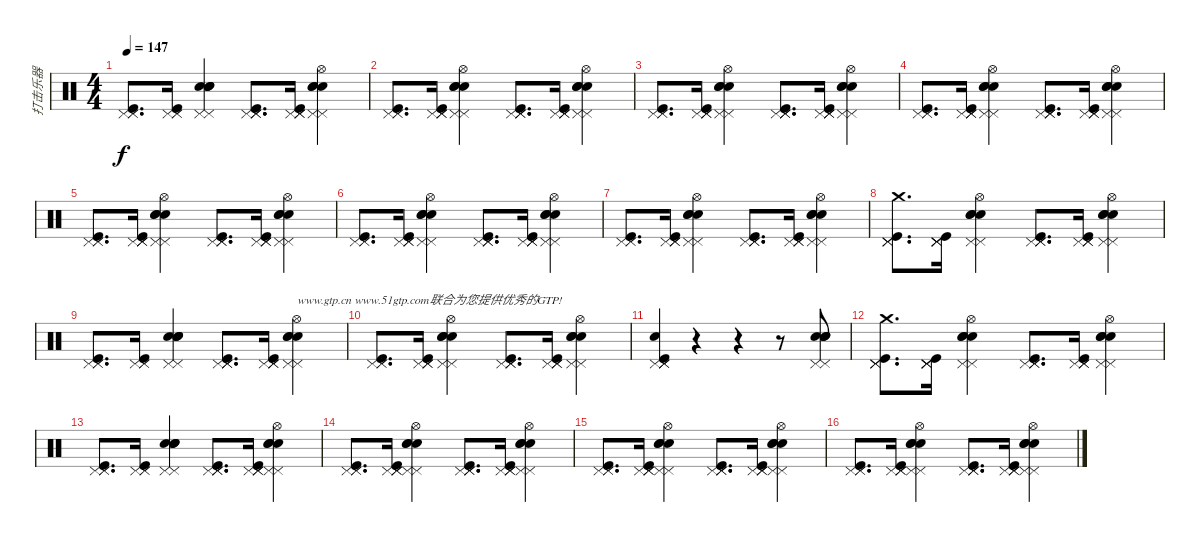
\track ("打击乐器" "打击乐器") {instrument percussion}
\staff {score}
\articulation defaults
\ts (4 4)
\tempo 147
\clef neutral
\ks c
("Pedal Hi-Hat (hit)" "Pedal Hi-Hat (hit)" "Pedal Hi-Hat (hit)" "Kick (hit)").8{d dy f} ("Pedal Hi-Hat (hit)" "Pedal Hi-Hat (hit)" "Pedal Hi-Hat (hit)" "Kick (hit)").16 ("Electric Snare (hit)" "Electric Snare (hit)" "Electric Snare (hit)" "Electric Snare (hit)" "Pedal Hi-Hat (hit)" "Pedal Hi-Hat (hit)").4 ("Pedal Hi-Hat (hit)" "Pedal Hi-Hat (hit)" "Pedal Hi-Hat (hit)" "Pedal Hi-Hat (hit)" "Kick (hit)").8{d} ("Pedal Hi-Hat (hit)" "Pedal Hi-Hat (hit)" "Pedal Hi-Hat (hit)" "Pedal Hi-Hat (hit)" "Kick (hit)").16 ("Electric Snare (hit)" "Electric Snare (hit)" "Electric Snare (hit)" "Hi-Hat (open)" "Pedal Hi-Hat (hit)" "Pedal Hi-Hat (hit)").4 |
("Pedal Hi-Hat (hit)" "Pedal Hi-Hat (hit)" "Pedal Hi-Hat (hit)" "Kick (hit)").8{d} ("Pedal Hi-Hat (hit)" "Pedal Hi-Hat (hit)" "Pedal Hi-Hat (hit)" "Pedal Hi-Hat (hit)" "Kick (hit)").16 ("Electric Snare (hit)" "Electric Snare (hit)" "Electric Snare (hit)" "Hi-Hat (open)" "Pedal Hi-Hat (hit)" "Pedal Hi-Hat (hit)").4 ("Pedal Hi-Hat (hit)" "Pedal Hi-Hat (hit)" "Pedal Hi-Hat (hit)" "Pedal Hi-Hat (hit)" "Kick (hit)").8{d} ("Pedal Hi-Hat (hit)" "Pedal Hi-Hat (hit)" "Pedal Hi-Hat (hit)" "Pedal Hi-Hat (hit)" "Kick (hit)").16 ("Electric Snare (hit)" "Electric Snare (hit)" "Electric Snare (hit)" "Hi-Hat (open)" "Pedal Hi-Hat (hit)" "Pedal Hi-Hat (hit)").4 |
("Pedal Hi-Hat (hit)" "Pedal Hi-Hat (hit)" "Pedal Hi-Hat (hit)" "Kick (hit)").8{d} ("Pedal Hi-Hat (hit)" "Pedal Hi-Hat (hit)" "Pedal Hi-Hat (hit)" "Pedal Hi-Hat (hit)" "Kick (hit)").16 ("Electric Snare (hit)" "Electric Snare (hit)" "Electric Snare (hit)" "Hi-Hat (open)" "Pedal Hi-Hat (hit)" "Pedal Hi-Hat (hit)").4 ("Pedal Hi-Hat (hit)" "Pedal Hi-Hat (hit)" "Pedal Hi-Hat (hit)" "Pedal Hi-Hat (hit)" "Kick (hit)").8{d} ("Pedal Hi-Hat (hit)" "Pedal Hi-Hat (hit)" "Pedal Hi-Hat (hit)" "Pedal Hi-Hat (hit)" "Kick (hit)").16 ("Electric Snare (hit)" "Electric Snare (hit)" "Electric Snare (hit)" "Hi-Hat (open)" "Pedal Hi-Hat (hit)" "Pedal Hi-Hat (hit)").4 |
("Pedal Hi-Hat (hit)" "Pedal Hi-Hat (hit)" "Pedal Hi-Hat (hit)" "Kick (hit)").8{d} ("Pedal Hi-Hat (hit)" "Pedal Hi-Hat (hit)" "Pedal Hi-Hat (hit)" "Pedal Hi-Hat (hit)" "Kick (hit)").16 ("Electric Snare (hit)" "Electric Snare (hit)" "Electric Snare (hit)" "Hi-Hat (open)" "Pedal Hi-Hat (hit)" "Pedal Hi-Hat (hit)").4 ("Pedal Hi-Hat (hit)" "Pedal Hi-Hat (hit)" "Pedal Hi-Hat (hit)" "Pedal Hi-Hat (hit)" "Kick (hit)").8{d} ("Pedal Hi-Hat (hit)" "Pedal Hi-Hat (hit)" "Pedal Hi-Hat (hit)" "Pedal Hi-Hat (hit)" "Kick (hit)").16 ("Electric Snare (hit)" "Electric Snare (hit)" "Electric Snare (hit)" "Hi-Hat (open)" "Pedal Hi-Hat (hit)" "Pedal Hi-Hat (hit)").4 |
("Pedal Hi-Hat (hit)" "Pedal Hi-Hat (hit)" "Pedal Hi-Hat (hit)" "Kick (hit)").8{d} ("Pedal Hi-Hat (hit)" "Pedal Hi-Hat (hit)" "Pedal Hi-Hat (hit)" "Pedal Hi-Hat (hit)" "Kick (hit)").16 ("Electric Snare (hit)" "Electric Snare (hit)" "Electric Snare (hit)" "Hi-Hat (open)" "Pedal Hi-Hat (hit)" "Pedal Hi-Hat (hit)").4 ("Pedal Hi-Hat (hit)" "Pedal Hi-Hat (hit)" "Pedal Hi-Hat (hit)" "Pedal Hi-Hat (hit)" "Kick (hit)").8{d} ("Pedal Hi-Hat (hit)" "Pedal Hi-Hat (hit)" "Pedal Hi-Hat (hit)" "Pedal Hi-Hat (hit)" "Kick (hit)").16 ("Electric Snare (hit)" "Electric Snare (hit)" "Electric Snare (hit)" "Hi-Hat (open)" "Pedal Hi-Hat (hit)" "Pedal Hi-Hat (hit)").4 |
("Pedal Hi-Hat (hit)" "Pedal Hi-Hat (hit)" "Pedal Hi-Hat (hit)" "Kick (hit)").8{d} ("Pedal Hi-Hat (hit)" "Pedal Hi-Hat (hit)" "Pedal Hi-Hat (hit)" "Pedal Hi-Hat (hit)" "Kick (hit)").16 ("Electric Snare (hit)" "Electric Snare (hit)" "Electric Snare (hit)" "Hi-Hat (open)" "Pedal Hi-Hat (hit)" "Pedal Hi-Hat (hit)").4 ("Pedal Hi-Hat (hit)" "Pedal Hi-Hat (hit)" "Pedal Hi-Hat (hit)" "Pedal Hi-Hat (hit)" "Kick (hit)").8{d} ("Pedal Hi-Hat (hit)" "Pedal Hi-Hat (hit)" "Pedal Hi-Hat (hit)" "Pedal Hi-Hat (hit)" "Kick (hit)").16 ("Electric Snare (hit)" "Electric Snare (hit)" "Electric Snare (hit)" "Hi-Hat (open)" "Pedal Hi-Hat (hit)" "Pedal Hi-Hat (hit)").4 |
("Pedal Hi-Hat (hit)" "Pedal Hi-Hat (hit)" "Pedal Hi-Hat (hit)" "Kick (hit)").8{d} ("Pedal Hi-Hat (hit)" "Pedal Hi-Hat (hit)" "Pedal Hi-Hat (hit)" "Pedal Hi-Hat (hit)" "Kick (hit)").16 ("Electric Snare (hit)" "Electric Snare (hit)" "Electric Snare (hit)" "Hi-Hat (open)" "Pedal Hi-Hat (hit)" "Pedal Hi-Hat (hit)").4 ("Pedal Hi-Hat (hit)" "Pedal Hi-Hat (hit)" "Pedal Hi-Hat (hit)" "Pedal Hi-Hat (hit)" "Kick (hit)").8{d} ("Pedal Hi-Hat (hit)" "Pedal Hi-Hat (hit)" "Pedal Hi-Hat (hit)" "Pedal Hi-Hat (hit)" "Kick (hit)").16 ("Electric Snare (hit)" "Electric Snare (hit)" "Electric Snare (hit)" "Hi-Hat (open)" "Pedal Hi-Hat (hit)" "Pedal Hi-Hat (hit)").4 |
("Pedal Hi-Hat (hit)" "Pedal Hi-Hat (hit)" "Pedal Hi-Hat (hit)" "Crash medium (hit)" "Kick (hit)").8{d} ("Pedal Hi-Hat (hit)" "Pedal Hi-Hat (hit)" "Pedal Hi-Hat (hit)" "Pedal Hi-Hat (hit)" "Kick (hit)").16 ("Electric Snare (hit)" "Electric Snare (hit)" "Electric Snare (hit)" "Hi-Hat (open)" "Pedal Hi-Hat (hit)" "Pedal Hi-Hat (hit)").4 ("Pedal Hi-Hat (hit)" "Pedal Hi-Hat (hit)" "Pedal Hi-Hat (hit)" "Pedal Hi-Hat (hit)" "Kick (hit)").8{d} ("Pedal Hi-Hat (hit)" "Pedal Hi-Hat (hit)" "Pedal Hi-Hat (hit)" "Pedal Hi-Hat (hit)" "Kick (hit)").16 ("Electric Snare (hit)" "Electric Snare (hit)" "Electric Snare (hit)" "Hi-Hat (open)" "Pedal Hi-Hat (hit)" "Pedal Hi-Hat (hit)").4 |
("Pedal Hi-Hat (hit)" "Pedal Hi-Hat (hit)" "Pedal Hi-Hat (hit)" "Kick (hit)").8{d} ("Pedal Hi-Hat (hit)" "Pedal Hi-Hat (hit)" "Pedal Hi-Hat (hit)" "Kick (hit)").16 ("Electric Snare (hit)" "Electric Snare (hit)" "Electric Snare (hit)" "Electric Snare (hit)" "Pedal Hi-Hat (hit)" "Pedal Hi-Hat (hit)").4 ("Pedal Hi-Hat (hit)" "Pedal Hi-Hat (hit)" "Pedal Hi-Hat (hit)" "Pedal Hi-Hat (hit)" "Kick (hit)").8{d} ("Pedal Hi-Hat (hit)" "Pedal Hi-Hat (hit)" "Pedal Hi-Hat (hit)" "Pedal Hi-Hat (hit)" "Kick (hit)").16 ("Electric Snare (hit)" "Electric Snare (hit)" "Electric Snare (hit)" "Hi-Hat (open)" "Pedal Hi-Hat (hit)" "Pedal Hi-Hat (hit)").4{txt "www.gtp.cn www.51gtp.com联合为您提供优秀的GTP!"} |
("Pedal Hi-Hat (hit)" "Pedal Hi-Hat (hit)" "Pedal Hi-Hat (hit)" "Kick (hit)").8{d} ("Pedal Hi-Hat (hit)" "Pedal Hi-Hat (hit)" "Pedal Hi-Hat (hit)" "Pedal Hi-Hat (hit)" "Kick (hit)").16 ("Electric Snare (hit)" "Electric Snare (hit)" "Electric Snare (hit)" "Hi-Hat (open)" "Pedal Hi-Hat (hit)" "Pedal Hi-Hat (hit)").4 ("Pedal Hi-Hat (hit)" "Pedal Hi-Hat (hit)" "Pedal Hi-Hat (hit)" "Pedal Hi-Hat (hit)" "Kick (hit)").8{d} ("Pedal Hi-Hat (hit)" "Pedal Hi-Hat (hit)" "Pedal Hi-Hat (hit)" "Pedal Hi-Hat (hit)" "Kick (hit)").16 ("Electric Snare (hit)" "Electric Snare (hit)" "Electric Snare (hit)" "Hi-Hat (open)" "Pedal Hi-Hat (hit)" "Pedal Hi-Hat (hit)").4 |
("Pedal Hi-Hat (hit)" "Pedal Hi-Hat (hit)" "Pedal Hi-Hat (hit)" "Electric Snare (hit)" "Pedal Hi-Hat (hit)" "Kick (hit)").4 r.4 r.4 r.8 ("Pedal Hi-Hat (hit)" "Electric Snare (hit)" "Electric Snare (hit)" "Electric Snare (hit)" "Electric Snare (hit)" "Pedal Hi-Hat (hit)").8 |
("Pedal Hi-Hat (hit)" "Pedal Hi-Hat (hit)" "Pedal Hi-Hat (hit)" "Crash medium (hit)" "Kick (hit)").8{d} ("Pedal Hi-Hat (hit)" "Pedal Hi-Hat (hit)" "Pedal Hi-Hat (hit)" "Pedal Hi-Hat (hit)" "Kick (hit)").16 ("Electric Snare (hit)" "Electric Snare (hit)" "Electric Snare (hit)" "Hi-Hat (open)" "Pedal Hi-Hat (hit)" "Pedal Hi-Hat (hit)").4 ("Pedal Hi-Hat (hit)" "Pedal Hi-Hat (hit)" "Pedal Hi-Hat (hit)" "Pedal Hi-Hat (hit)" "Kick (hit)").8{d} ("Pedal Hi-Hat (hit)" "Pedal Hi-Hat (hit)" "Pedal Hi-Hat (hit)" "Pedal Hi-Hat (hit)" "Kick (hit)").16 ("Electric Snare (hit)" "Electric Snare (hit)" "Electric Snare (hit)" "Hi-Hat (open)" "Pedal Hi-Hat (hit)" "Pedal Hi-Hat (hit)").4 |
("Pedal Hi-Hat (hit)" "Pedal Hi-Hat (hit)" "Pedal Hi-Hat (hit)" "Kick (hit)").8{d} ("Pedal Hi-Hat (hit)" "Pedal Hi-Hat (hit)" "Pedal Hi-Hat (hit)" "Kick (hit)").16 ("Electric Snare (hit)" "Electric Snare (hit)" "Electric Snare (hit)" "Electric Snare (hit)" "Pedal Hi-Hat (hit)" "Pedal Hi-Hat (hit)").4 ("Pedal Hi-Hat (hit)" "Pedal Hi-Hat (hit)" "Pedal Hi-Hat (hit)" "Pedal Hi-Hat (hit)" "Kick (hit)").8{d} ("Pedal Hi-Hat (hit)" "Pedal Hi-Hat (hit)" "Pedal Hi-Hat (hit)" "Pedal Hi-Hat (hit)" "Kick (hit)").16 ("Electric Snare (hit)" "Electric Snare (hit)" "Electric Snare (hit)" "Hi-Hat (open)" "Pedal Hi-Hat (hit)" "Pedal Hi-Hat (hit)").4 |
("Pedal Hi-Hat (hit)" "Pedal Hi-Hat (hit)" "Pedal Hi-Hat (hit)" "Kick (hit)").8{d} ("Pedal Hi-Hat (hit)" "Pedal Hi-Hat (hit)" "Pedal Hi-Hat (hit)" "Pedal Hi-Hat (hit)" "Kick (hit)").16 ("Electric Snare (hit)" "Electric Snare (hit)" "Electric Snare (hit)" "Hi-Hat (open)" "Pedal Hi-Hat (hit)" "Pedal Hi-Hat (hit)").4 ("Pedal Hi-Hat (hit)" "Pedal Hi-Hat (hit)" "Pedal Hi-Hat (hit)" "Pedal Hi-Hat (hit)" "Kick (hit)").8{d} ("Pedal Hi-Hat (hit)" "Pedal Hi-Hat (hit)" "Pedal Hi-Hat (hit)" "Pedal Hi-Hat (hit)" "Kick (hit)").16 ("Electric Snare (hit)" "Electric Snare (hit)" "Electric Snare (hit)" "Hi-Hat (open)" "Pedal Hi-Hat (hit)" "Pedal Hi-Hat (hit)").4 |
("Pedal Hi-Hat (hit)" "Pedal Hi-Hat (hit)" "Pedal Hi-Hat (hit)" "Kick (hit)").8{d} ("Pedal Hi-Hat (hit)" "Pedal Hi-Hat (hit)" "Pedal Hi-Hat (hit)" "Pedal Hi-Hat (hit)" "Kick (hit)").16 ("Electric Snare (hit)" "Electric Snare (hit)" "Electric Snare (hit)" "Hi-Hat (open)" "Pedal Hi-Hat (hit)" "Pedal Hi-Hat (hit)").4 ("Pedal Hi-Hat (hit)" "Pedal Hi-Hat (hit)" "Pedal Hi-Hat (hit)" "Pedal Hi-Hat (hit)" "Kick (hit)").8{d} ("Pedal Hi-Hat (hit)" "Pedal Hi-Hat (hit)" "Pedal Hi-Hat (hit)" "Pedal Hi-Hat (hit)" "Kick (hit)").16 ("Electric Snare (hit)" "Electric Snare (hit)" "Electric Snare (hit)" "Hi-Hat (open)" "Pedal Hi-Hat (hit)" "Pedal Hi-Hat (hit)").4 |
("Pedal Hi-Hat (hit)" "Pedal Hi-Hat (hit)" "Pedal Hi-Hat (hit)" "Kick (hit)").8{d} ("Pedal Hi-Hat (hit)" "Pedal Hi-Hat (hit)" "Pedal Hi-Hat (hit)" "Pedal Hi-Hat (hit)" "Kick (hit)").16 ("Electric Snare (hit)" "Electric Snare (hit)" "Electric Snare (hit)" "Hi-Hat (open)" "Pedal Hi-Hat (hit)" "Pedal Hi-Hat (hit)").4 ("Pedal Hi-Hat (hit)" "Pedal Hi-Hat (hit)" "Pedal Hi-Hat (hit)" "Pedal Hi-Hat (hit)" "Kick (hit)").8{d} ("Pedal Hi-Hat (hit)" "Pedal Hi-Hat (hit)" "Pedal Hi-Hat (hit)" "Pedal Hi-Hat (hit)" "Kick (hit)").16 ("Electric Snare (hit)" "Electric Snare (hit)" "Electric Snare (hit)" "Hi-Hat (open)" "Pedal Hi-Hat (hit)" "Pedal Hi-Hat (hit)").4
